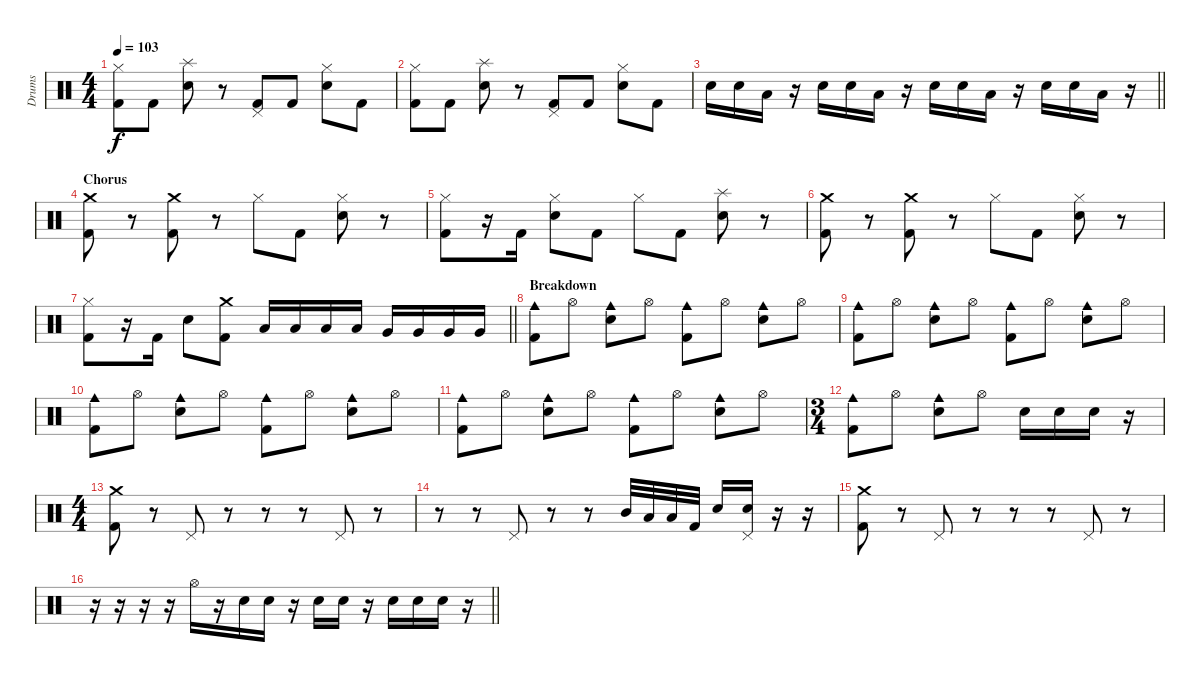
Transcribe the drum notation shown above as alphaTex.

\track ("Drums" "Drums") {instrument percussion}
\staff {score}
\articulation defaults
\ts (4 4)
\tempo 103
\clef neutral
\ks c
("Hi-Hat (closed)" "Kick (hit) 2").8{dy f} "Kick (hit) 2".8 ("Splash (hit)" "Snare (hit) 2").8 r.8 ("Pedal Hi-Hat (hit)" "Kick (hit) 2").8 "Kick (hit) 2".8 ("Hi-Hat (closed)" "Snare (hit) 2").8 "Kick (hit) 2".8 |
("Hi-Hat (closed)" "Kick (hit) 2").8 "Kick (hit) 2".8 ("Splash (hit)" "Snare (hit) 2").8 r.8 ("Pedal Hi-Hat (hit)" "Kick (hit) 2").8 "Kick (hit) 2".8 ("Hi-Hat (closed)" "Snare (hit) 2").8 "Kick (hit) 2".8 |
\barLineRight lightlight "Snare (hit) 2".16 "Snare (hit) 2".16 "Low Tom (hit)".16
r.16 "Snare (hit) 2".16 "Snare (hit) 2".16 "Low Tom (hit)".16 r.16 "Snare (hit) 2".16 "Snare (hit) 2".16 "Low Tom (hit)".16 r.16 "Snare (hit) 2".16 "Snare (hit) 2".16 "Low Tom (hit)".16 r.16 |
\section ("" "Chorus")
("Crash medium (hit)" "Kick (hit) 2").8 r.8 ("Crash medium (hit)" "Kick (hit) 2").8 r.8 "Hi-Hat (closed)".8 "Kick (hit) 2".8 ("Hi-Hat (closed)" "Snare (hit) 2").8 r.8 |
("Hi-Hat (closed)" "Kick (hit) 2").8 r.16 "Kick (hit) 2".16 ("Hi-Hat (closed)" "Snare (hit) 2").8 "Kick (hit) 2".8 "Hi-Hat (closed)".8 "Kick (hit) 2".8 ("Splash (hit)" "Snare (hit) 2").8 r.8 |
("Crash medium (hit)" "Kick (hit) 2").8 r.8 ("Crash medium (hit)" "Kick (hit) 2").8 r.8 "Hi-Hat (closed)".8 "Kick (hit) 2".8 ("Hi-Hat (closed)" "Snare (hit) 2").8 r.8 |
\barLineRight lightlight
("Hi-Hat (closed)" "Kick (hit) 2").8 r.16 "Kick (hit) 2".16 "Snare (hit) 2".8 ("Crash medium (hit)" "Kick (hit) 2").8 "Low Tom (hit)".16 "Low Tom (hit)".16 "Low Tom (hit)".16 "Low Tom (hit)".16 "Very Low Tom (hit)".16 "Very Low Tom (hit)".16 "Very Low Tom (hit)".16 "Very Low Tom (hit)".16 |
\section ("" "Breakdown")
("Cowbell medium (hit)" "Kick (hit) 2").8 "Hi-Hat (open)".8 ("Cowbell medium (hit)" "Snare (hit) 2").8 "Hi-Hat (open)".8 ("Cowbell medium (hit)" "Kick (hit) 2").8 "Hi-Hat (open)".8 ("Cowbell medium (hit)" "Snare (hit) 2").8 "Hi-Hat (open)".8 |
("Cowbell medium (hit)" "Kick (hit) 2").8 "Hi-Hat (open)".8 ("Cowbell medium (hit)" "Snare (hit) 2").8 "Hi-Hat (open)".8 ("Cowbell medium (hit)" "Kick (hit) 2").8 "Hi-Hat (open)".8 ("Cowbell medium (hit)" "Snare (hit) 2").8 "Hi-Hat (open)".8 |
("Cowbell medium (hit)" "Kick (hit) 2").8 "Hi-Hat (open)".8 ("Cowbell medium (hit)" "Snare (hit) 2").8 "Hi-Hat (open)".8 ("Cowbell medium (hit)" "Kick (hit) 2").8 "Hi-Hat (open)".8 ("Cowbell medium (hit)" "Snare (hit) 2").8 "Hi-Hat (open)".8 |
("Cowbell medium (hit)" "Kick (hit) 2").8 "Hi-Hat (open)".8 ("Cowbell medium (hit)" "Snare (hit) 2").8 "Hi-Hat (open)".8 ("Cowbell medium (hit)" "Kick (hit) 2").8 "Hi-Hat (open)".8 ("Cowbell medium (hit)" "Snare (hit) 2").8 "Hi-Hat (open)".8 |
\ts (3 4)
("Cowbell medium (hit)" "Kick (hit) 2").8 "Hi-Hat (open)".8 ("Cowbell medium (hit)" "Snare (hit) 2").8 "Hi-Hat (open)".8 "Snare (hit) 2".16 "Snare (hit) 2".16 "Snare (hit) 2".16 r.16 |
\ts (4 4)
("Crash medium (hit)" "Kick (hit) 2").8 r.8 "Pedal Hi-Hat (hit)".8 r.8 r.8 r.8 "Pedal Hi-Hat (hit)".8 r.8 |
r.8 r.8 "Pedal Hi-Hat (hit)".8 r.8 r.8 "Mid Tom (hit)".32 "Low Tom (hit)".32 "Low Floor Tom (hit)".32 "Kick (hit) 2".32 "Snare (hit) 2".16 ("Pedal Hi-Hat (hit)" "Snare (hit) 2").16 r.16 r.16 |
("Crash medium (hit)" "Kick (hit) 2").8 r.8 "Pedal Hi-Hat (hit)".8 r.8 r.8 r.8 "Pedal Hi-Hat (hit)".8 r.8 |
\barLineRight lightlight
r.16 r.16 r.16 r.16 "Hi-Hat (open)".16 r.16 "Snare (hit) 2".16 "Snare (hit) 2".16 r.16 "Snare (hit) 2".16 "Snare (hit) 2".16 r.16 "Snare (hit) 2".16 "Snare (hit) 2".16 "Snare (hit) 2".16 r.16
